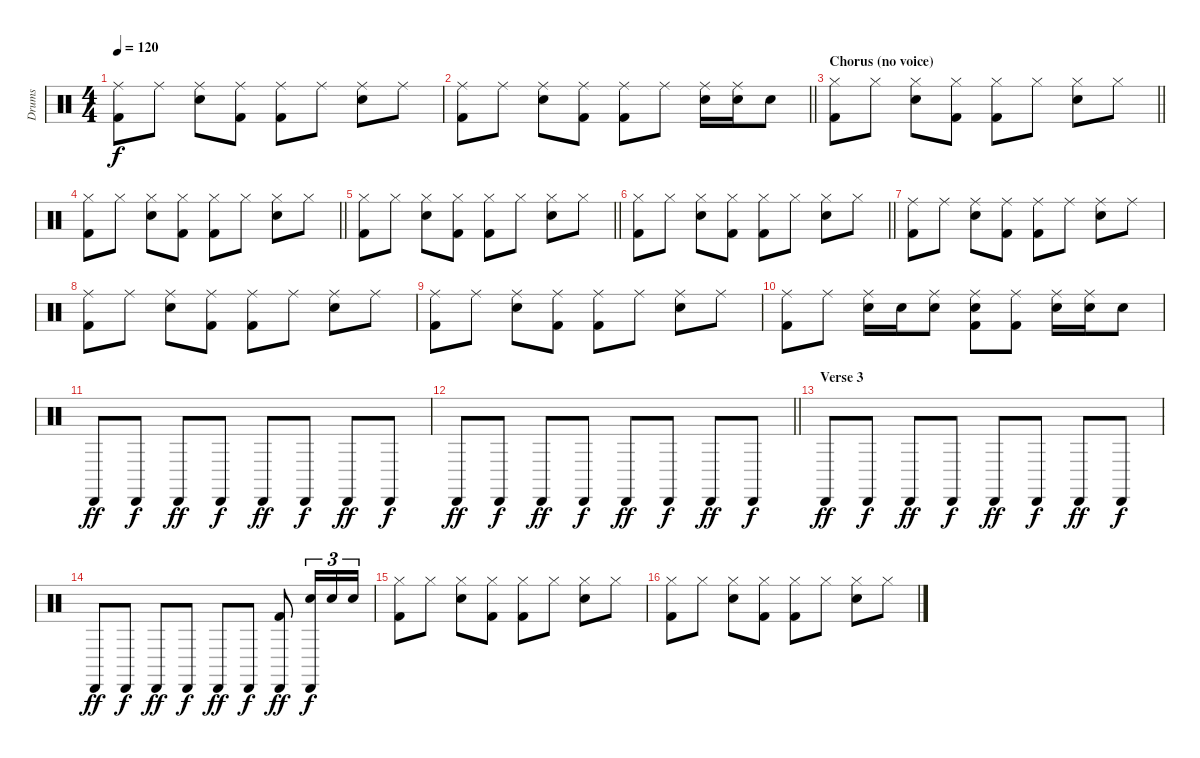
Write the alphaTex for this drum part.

\track ("Drums" "Drums") {instrument percussion}
\staff
\articulation defaults
\ts (4 4)
\tempo 120
\clef neutral
\ks c
("Ride (middle)" "Kick (hit) 2").8{dy f} "Ride (middle)".8 ("Ride (middle)" "Electric Snare (hit)").8 ("Ride (middle)" "Kick (hit) 2").8 ("Ride (middle)" "Kick (hit) 2").8 "Ride (middle)".8 ("Ride (middle)" "Electric Snare (hit)").8 "Ride (middle)".8 |
\barLineRight lightlight
("Ride (middle)" "Kick (hit) 2").8 "Ride (middle)".8 ("Ride (middle)" "Electric Snare (hit)").8 ("Ride (middle)" "Kick (hit) 2").8 ("Ride (middle)" "Kick (hit) 2").8 "Ride (middle)".8 ("Ride (middle)" "Electric Snare (hit)").16 ("Ride (middle)" "Electric Snare (hit)").16 "Electric Snare (hit)".8 |
\section ("" "Chorus (no voice)")
\barLineRight lightlight
("Hi-Hat (closed)" "Kick (hit) 2").8 "Hi-Hat (closed)".8 ("Hi-Hat (closed)" "Electric Snare (hit)").8 ("Hi-Hat (closed)" "Kick (hit) 2").8 ("Hi-Hat (closed)" "Kick (hit) 2").8 "Hi-Hat (closed)".8 ("Hi-Hat (closed)" "Electric Snare (hit)").8 "Hi-Hat (closed)".8 |
\barLineRight lightlight
("Hi-Hat (closed)" "Kick (hit) 2").8 "Hi-Hat (closed)".8 ("Hi-Hat (closed)" "Electric Snare (hit)").8 ("Hi-Hat (closed)" "Kick (hit) 2").8 ("Hi-Hat (closed)" "Kick (hit) 2").8 "Hi-Hat (closed)".8 ("Hi-Hat (closed)" "Electric Snare (hit)").8 "Hi-Hat (closed)".8 |
\barLineRight lightlight
("Hi-Hat (closed)" "Kick (hit) 2").8 "Hi-Hat (closed)".8 ("Hi-Hat (closed)" "Electric Snare (hit)").8 ("Hi-Hat (closed)" "Kick (hit) 2").8 ("Hi-Hat (closed)" "Kick (hit) 2").8 "Hi-Hat (closed)".8 ("Hi-Hat (closed)" "Electric Snare (hit)").8 "Hi-Hat (closed)".8 |
\barLineRight lightlight
("Hi-Hat (closed)" "Kick (hit) 2").8 "Hi-Hat (closed)".8 ("Hi-Hat (closed)" "Electric Snare (hit)").8 ("Hi-Hat (closed)" "Kick (hit) 2").8 ("Hi-Hat (closed)" "Kick (hit) 2").8 "Hi-Hat (closed)".8 ("Hi-Hat (closed)" "Electric Snare (hit)").8 "Hi-Hat (closed)".8 |
("Ride (middle)" "Kick (hit) 2").8 "Ride (middle)".8 ("Ride (middle)" "Electric Snare (hit)").8 ("Ride (middle)" "Kick (hit) 2").8 ("Ride (middle)" "Kick (hit) 2").8 "Ride (middle)".8 ("Ride (middle)" "Electric Snare (hit)").8 "Ride (middle)".8 |
("Ride (middle)" "Kick (hit) 2").8 "Ride (middle)".8 ("Ride (middle)" "Electric Snare (hit)").8 ("Ride (middle)" "Kick (hit) 2").8 ("Ride (middle)" "Kick (hit) 2").8 "Ride (middle)".8 ("Ride (middle)" "Electric Snare (hit)").8 "Ride (middle)".8 |
("Ride (middle)" "Kick (hit) 2").8 "Ride (middle)".8 ("Ride (middle)" "Electric Snare (hit)").8 ("Ride (middle)" "Kick (hit) 2").8 ("Ride (middle)" "Kick (hit) 2").8 "Ride (middle)".8 ("Ride (middle)" "Electric Snare (hit)").8 "Ride (middle)".8 |
("Ride (middle)" "Kick (hit) 2").8 "Ride (middle)".8 ("Ride (middle)" "Electric Snare (hit)").16 "Electric Snare (hit)".16 ("Ride (middle)" "Electric Snare (hit)").8 ("Ride (middle)" "Electric Snare (hit)" "Kick (hit) 2").8 ("Ride (middle)" "Kick (hit) 2").8 ("Ride (middle)" "Electric Snare (hit)").16 ("Ride (middle)" "Electric Snare (hit)").16 "Electric Snare (hit)".8 |
"Cabasa (hit)".8{dy ff} "Cabasa (hit)".8{dy f} "Cabasa (hit)".8{dy ff} "Cabasa (hit)".8{dy f} "Cabasa (hit)".8{dy ff} "Cabasa (hit)".8{dy f} "Cabasa (hit)".8{dy ff} "Cabasa (hit)".8{dy f} |
\barLineRight lightlight "Cabasa (hit)".8{dy ff} "Cabasa (hit)".8{dy f} "Cabasa (hit)".8{dy ff} "Cabasa (hit)".8{dy f} "Cabasa (hit)".8{dy ff} "Cabasa (hit)".8{dy f} "Cabasa (hit)".8{dy ff} "Cabasa (hit)".8{dy f}
|
\section ("" "Verse 3")
"Cabasa (hit)".8{dy ff} "Cabasa (hit)".8{dy f} "Cabasa (hit)".8{dy ff} "Cabasa (hit)".8{dy f} "Cabasa (hit)".8{dy ff} "Cabasa (hit)".8{dy f} "Cabasa (hit)".8{dy ff} "Cabasa (hit)".8{dy f} |
"Cabasa (hit)".8{dy ff} "Cabasa (hit)".8{dy f} "Cabasa (hit)".8{dy ff} "Cabasa (hit)".8{dy f} "Cabasa (hit)".8{dy ff} "Cabasa (hit)".8{dy f} ("Cabasa (hit)" "Kick (hit) 2").8{dy ff} ("Cabasa (hit)" "Electric Snare (hit)").16{tu (3 2) dy f} "Electric Snare (hit)".16{tu (3 2)} "Electric Snare (hit)".16{tu (3 2)} |
("Hi-Hat (closed)" "Kick (hit) 2").8 "Hi-Hat (closed)".8 ("Hi-Hat (closed)" "Electric Snare (hit)").8 ("Hi-Hat (closed)" "Kick (hit) 2").8 ("Hi-Hat (closed)" "Kick (hit) 2").8 "Hi-Hat (closed)".8 ("Hi-Hat (closed)" "Electric Snare (hit)").8 "Hi-Hat (closed)".8 |
("Hi-Hat (closed)" "Kick (hit) 2").8 "Hi-Hat (closed)".8 ("Hi-Hat (closed)" "Electric Snare (hit)").8 ("Hi-Hat (closed)" "Kick (hit) 2").8 ("Hi-Hat (closed)" "Kick (hit) 2").8 "Hi-Hat (closed)".8 ("Hi-Hat (closed)" "Electric Snare (hit)").8 "Hi-Hat (closed)".8
